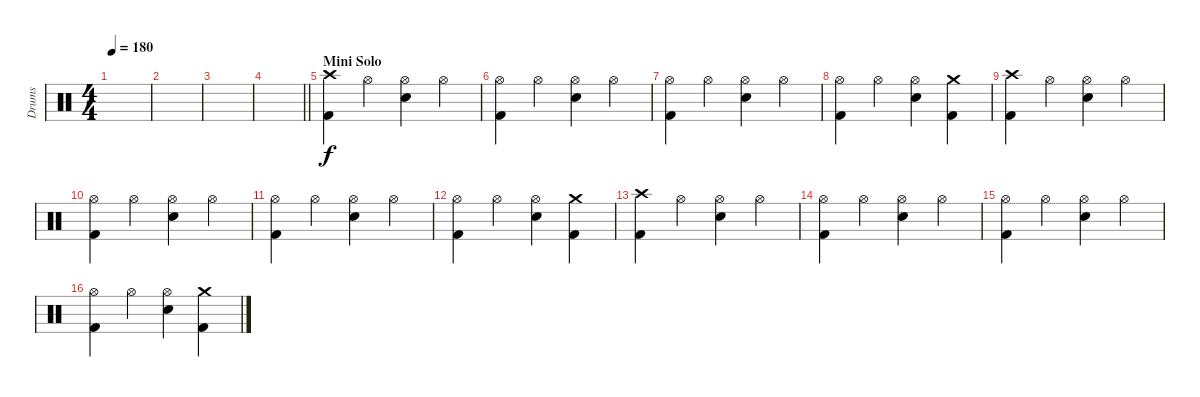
\track ("Drums" "Drums") {instrument percussion}
\staff {score}
\articulation defaults
\ts (4 4)
\tempo 180
\clef neutral
\ks c
|
|
|
\barLineRight lightlight
|
\section ("" "Mini Solo")
("Crash high (hit)" "Kick (hit) 2").4 "Hi-Hat (open)".4 ("Hi-Hat (open)" "Electric Snare (hit)").4 "Hi-Hat (open)".4 |
("Hi-Hat (open)" "Kick (hit) 2").4 "Hi-Hat (open)".4 ("Hi-Hat (open)" "Electric Snare (hit)").4 "Hi-Hat (open)".4 |
("Hi-Hat (open)" "Kick (hit) 2").4 "Hi-Hat (open)".4 ("Hi-Hat (open)" "Electric Snare (hit)").4 "Hi-Hat (open)".4 |
("Hi-Hat (open)" "Kick (hit) 2").4 "Hi-Hat (open)".4 ("Hi-Hat (open)" "Electric Snare (hit)").4 ("Crash medium (hit)" "Kick (hit) 2").4 |
("Crash high (hit)" "Kick (hit) 2").4 "Hi-Hat (open)".4 ("Hi-Hat (open)" "Electric Snare (hit)").4 "Hi-Hat (open)".4 |
("Hi-Hat (open)" "Kick (hit) 2").4 "Hi-Hat (open)".4 ("Hi-Hat (open)" "Electric Snare (hit)").4 "Hi-Hat (open)".4 |
("Hi-Hat (open)" "Kick (hit) 2").4 "Hi-Hat (open)".4 ("Hi-Hat (open)" "Electric Snare (hit)").4 "Hi-Hat (open)".4 |
("Hi-Hat (open)" "Kick (hit) 2").4 "Hi-Hat (open)".4 ("Hi-Hat (open)" "Electric Snare (hit)").4 ("Crash medium (hit)" "Kick (hit) 2").4 |
("Crash high (hit)" "Kick (hit) 2").4 "Hi-Hat (open)".4 ("Hi-Hat (open)" "Electric Snare (hit)").4 "Hi-Hat (open)".4 |
("Hi-Hat (open)" "Kick (hit) 2").4 "Hi-Hat (open)".4 ("Hi-Hat (open)" "Electric Snare (hit)").4 "Hi-Hat (open)".4 |
("Hi-Hat (open)" "Kick (hit) 2").4 "Hi-Hat (open)".4 ("Hi-Hat (open)" "Electric Snare (hit)").4 "Hi-Hat (open)".4 |
("Hi-Hat (open)" "Kick (hit) 2").4 "Hi-Hat (open)".4 ("Hi-Hat (open)" "Electric Snare (hit)").4 ("Crash medium (hit)" "Kick (hit) 2").4
